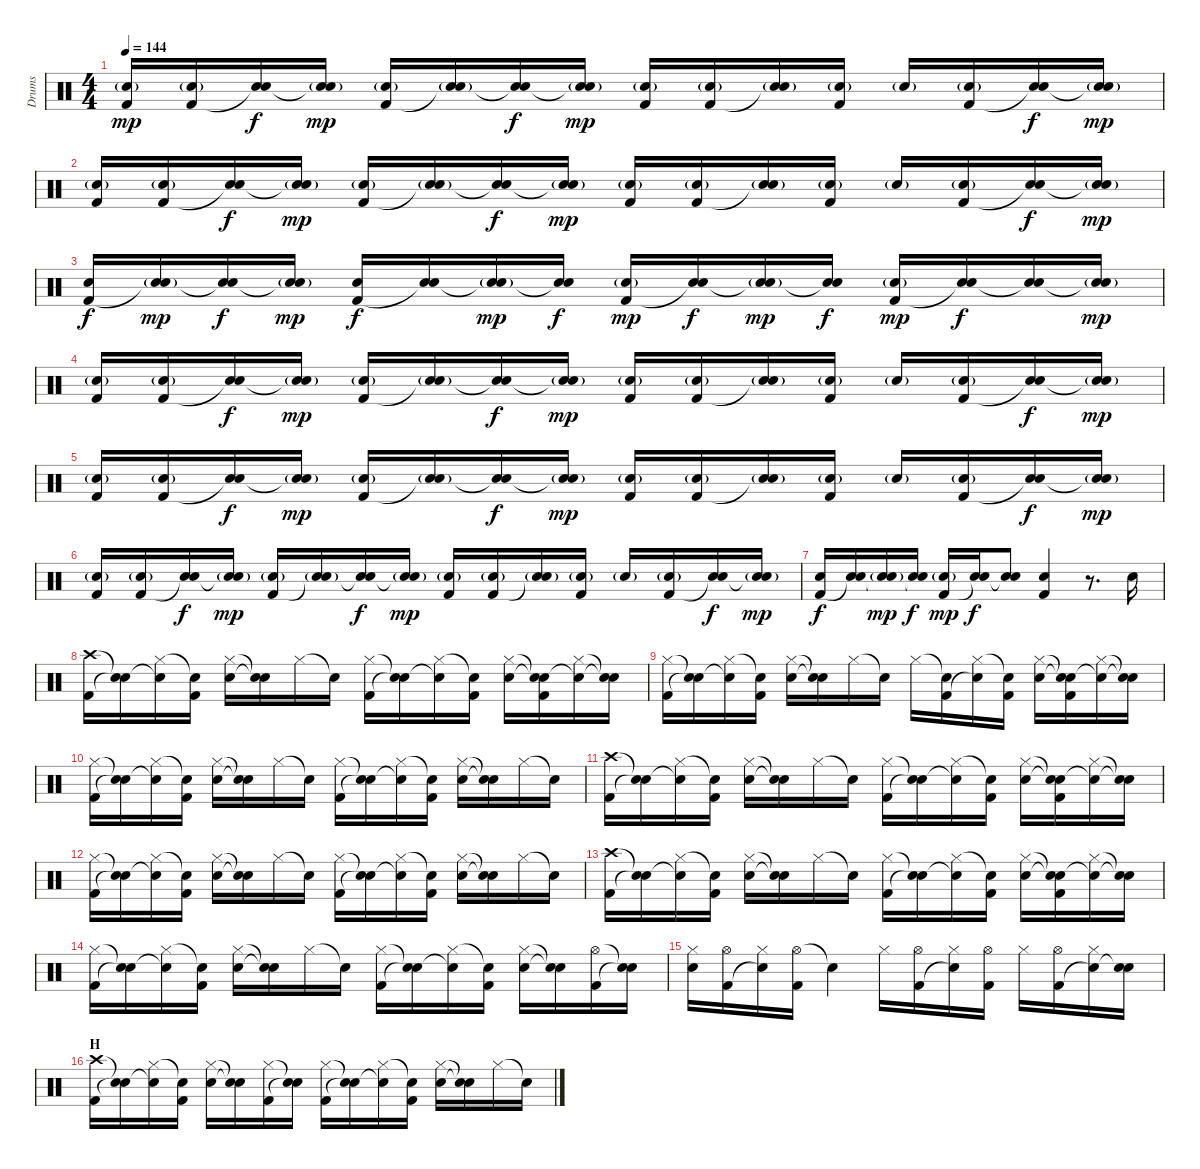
\track ("Drums" "Drums") {instrument percussion}
\staff {score}
\articulation defaults
\ts (4 4)
\tempo 144
\clef neutral
\ks c
("Snare (hit) 2"{g} "Kick (hit) 2").16{dy mp} ("Snare (hit) 2"{g} "Kick (hit) 2").16 ("Snare (hit) 2" "Snare (hit)"{t}).16{dy f} ("Snare (hit) 2"{g} "Snare (hit)"{t}).16{dy mp} ("Snare (hit) 2"{g} "Kick (hit) 2").16 ("Snare (hit) 2"{g} "Snare (hit)"{t}).16 ("Snare (hit) 2" "Snare (hit)"{t}).16{dy f} ("Snare (hit) 2"{g} "Snare (hit)"{t}).16{dy mp} ("Snare (hit) 2"{g} "Kick (hit) 2").16 ("Snare (hit) 2"{g} "Kick (hit) 2").16 ("Snare (hit) 2"{g} "Snare (hit)"{t}).16 ("Snare (hit) 2"{g} "Kick (hit) 2").16 "Snare (hit) 2"{g}.16 ("Snare (hit) 2"{g} "Kick (hit) 2").16 ("Snare (hit) 2" "Snare (hit)"{t}).16{dy f} ("Snare (hit) 2"{g} "Snare (hit)"{t}).16{dy mp} |
("Snare (hit) 2"{g} "Kick (hit) 2").16 ("Snare (hit) 2"{g} "Kick (hit) 2").16 ("Snare (hit) 2" "Snare (hit)"{t}).16{dy f} ("Snare (hit) 2"{g} "Snare (hit)"{t}).16{dy mp} ("Snare (hit) 2"{g} "Kick (hit) 2").16 ("Snare (hit) 2"{g} "Snare (hit)"{t}).16 ("Snare (hit) 2" "Snare (hit)"{t}).16{dy f} ("Snare (hit) 2"{g} "Snare (hit)"{t}).16{dy mp} ("Snare (hit) 2"{g} "Kick (hit) 2").16 ("Snare (hit) 2"{g} "Kick (hit) 2").16 ("Snare (hit) 2"{g} "Snare (hit)"{t}).16 ("Snare (hit) 2"{g} "Kick (hit) 2").16 "Snare (hit) 2"{g}.16 ("Snare (hit) 2"{g} "Kick (hit) 2").16 ("Snare (hit) 2" "Snare (hit)"{t}).16{dy f} ("Snare (hit) 2"{g} "Snare (hit)"{t}).16{dy mp} |
("Snare (hit) 2" "Kick (hit) 2").16{dy f} ("Snare (hit) 2"{g} "Snare (hit)"{t}).16{dy mp} ("Snare (hit) 2" "Snare (hit)"{t}).16{dy f} ("Snare (hit) 2"{g} "Snare (hit)"{t}).16{dy mp} ("Snare (hit) 2" "Kick (hit) 2").16{dy f} ("Snare (hit) 2" "Snare (hit)"{t}).16 ("Snare (hit) 2"{g} "Snare (hit)"{t}).16{dy mp} ("Snare (hit) 2" "Snare (hit)"{t}).16{dy f} ("Snare (hit) 2"{g} "Kick (hit) 2").16{dy mp} ("Snare (hit) 2" "Snare (hit)"{t}).16{dy f} ("Snare (hit) 2"{g} "Snare (hit)"{t}).16{dy mp} ("Snare (hit) 2" "Snare (hit)"{t}).16{dy f} ("Snare (hit) 2"{g} "Kick (hit) 2").16{dy mp} ("Snare (hit) 2" "Snare (hit)"{t}).16{dy f} ("Snare (hit) 2" "Snare (hit)"{t}).16 ("Snare (hit) 2"{g} "Snare (hit)"{t}).16{dy mp} |
("Snare (hit) 2"{g} "Kick (hit) 2").16 ("Snare (hit) 2"{g} "Kick (hit) 2").16 ("Snare (hit) 2" "Snare (hit)"{t}).16{dy f} ("Snare (hit) 2"{g} "Snare (hit)"{t}).16{dy mp} ("Snare (hit) 2"{g} "Kick (hit) 2").16 ("Snare (hit) 2"{g} "Snare (hit)"{t}).16 ("Snare (hit) 2" "Snare (hit)"{t}).16{dy f} ("Snare (hit) 2"{g} "Snare (hit)"{t}).16{dy mp} ("Snare (hit) 2"{g} "Kick (hit) 2").16 ("Snare (hit) 2"{g} "Kick (hit) 2").16 ("Snare (hit) 2"{g} "Snare (hit)"{t}).16 ("Snare (hit) 2"{g} "Kick (hit) 2").16 "Snare (hit) 2"{g}.16 ("Snare (hit) 2"{g} "Kick (hit) 2").16 ("Snare (hit) 2" "Snare (hit)"{t}).16{dy f} ("Snare (hit) 2"{g} "Snare (hit)"{t}).16{dy mp} |
("Snare (hit) 2"{g} "Kick (hit) 2").16 ("Snare (hit) 2"{g} "Kick (hit) 2").16 ("Snare (hit) 2" "Snare (hit)"{t}).16{dy f} ("Snare (hit) 2"{g} "Snare (hit)"{t}).16{dy mp} ("Snare (hit) 2"{g} "Kick (hit) 2").16 ("Snare (hit) 2"{g} "Snare (hit)"{t}).16 ("Snare (hit) 2" "Snare (hit)"{t}).16{dy f} ("Snare (hit) 2"{g} "Snare (hit)"{t}).16{dy mp} ("Snare (hit) 2"{g} "Kick (hit) 2").16 ("Snare (hit) 2"{g} "Kick (hit) 2").16 ("Snare (hit) 2"{g} "Snare (hit)"{t}).16 ("Snare (hit) 2"{g} "Kick (hit) 2").16 "Snare (hit) 2"{g}.16 ("Snare (hit) 2"{g} "Kick (hit) 2").16 ("Snare (hit) 2" "Snare (hit)"{t}).16{dy f} ("Snare (hit) 2"{g} "Snare (hit)"{t}).16{dy mp} |
("Snare (hit) 2"{g} "Kick (hit) 2").16 ("Snare (hit) 2"{g} "Kick (hit) 2").16 ("Snare (hit) 2" "Snare (hit)"{t}).16{dy f} ("Snare (hit) 2"{g} "Snare (hit)"{t}).16{dy mp} ("Snare (hit) 2"{g} "Kick (hit) 2").16 ("Snare (hit) 2"{g} "Snare (hit)"{t}).16 ("Snare (hit) 2" "Snare (hit)"{t}).16{dy f} ("Snare (hit) 2"{g} "Snare (hit)"{t}).16{dy mp} ("Snare (hit) 2"{g} "Kick (hit) 2").16 ("Snare (hit) 2"{g} "Kick (hit) 2").16 ("Snare (hit) 2"{g} "Snare (hit)"{t}).16 ("Snare (hit) 2"{g} "Kick (hit) 2").16 "Snare (hit) 2"{g}.16 ("Snare (hit) 2"{g} "Kick (hit) 2").16 ("Snare (hit) 2" "Snare (hit)"{t}).16{dy f} ("Snare (hit) 2"{g} "Snare (hit)"{t}).16{dy mp} |
("Snare (hit) 2" "Kick (hit) 2").16{dy f} ("Snare (hit) 2" "Snare (hit)"{t}).16 ("Snare (hit) 2"{g} "Snare (hit)"{t}).16{dy mp} ("Snare (hit) 2" "Snare (hit)"{t}).16{dy f} ("Snare (hit) 2"{g} "Kick (hit) 2").16{dy mp} ("Snare (hit) 2" "Snare (hit)"{t}).16{dy f} ("Snare (hit) 2" "Snare (hit)"{t}).8 ("Snare (hit) 2" "Kick (hit) 2").4 r.8{d} "Snare (hit) 2".16 |
("Crash high (hit)" "Kick (hit) 2").16 ("Snare (hit)"{t} "Snare (hit)"{t}).16 ("Hi-Hat (closed)" "Snare (hit)"{t}).16 ("Snare (hit)"{t} "Kick (hit) 2").16 ("Hi-Hat (closed)" "Snare (hit) 2").16 ("Snare (hit)"{t} "Snare (hit)"{t}).16 "Hi-Hat (closed)".16 "Snare (hit)"{t}.16 ("Hi-Hat (closed)" "Kick (hit) 2").16 ("Snare (hit)"{t} "Snare (hit)"{t}).16 ("Hi-Hat (closed)" "Snare (hit)"{t}).16 ("Snare (hit)"{t} "Kick (hit) 2").16 ("Hi-Hat (closed)" "Snare (hit) 2").16 ("Snare (hit)"{t} "Snare (hit)"{t} "Kick (hit) 2").16 ("Hi-Hat (closed)" "Snare (hit)"{t}).16 ("Snare (hit)"{t} "Snare (hit)"{t}).16 |
("Hi-Hat (closed)" "Kick (hit) 2").16 ("Snare (hit)"{t} "Snare (hit)"{t}).16 ("Hi-Hat (closed)" "Snare (hit)"{t}).16 ("Snare (hit)"{t} "Kick (hit) 2").16 ("Hi-Hat (closed)" "Snare (hit) 2").16 ("Snare (hit)"{t} "Snare (hit)"{t}).16 "Hi-Hat (closed)".16 "Snare (hit)"{t}.16 "Hi-Hat (closed)".16 ("Snare (hit)"{t} "Kick (hit) 2").16 ("Hi-Hat (closed)" "Snare (hit)"{t}).16 ("Snare (hit)"{t} "Kick (hit) 2").16 ("Hi-Hat (closed)" "Snare (hit) 2").16 ("Snare (hit)"{t} "Snare (hit)"{t} "Kick (hit) 2").16 ("Hi-Hat (closed)" "Snare (hit)"{t}).16 ("Snare (hit)"{t} "Snare (hit)"{t}).16 |
("Hi-Hat (closed)" "Kick (hit) 2").16 ("Snare (hit)"{t} "Snare (hit)"{t}).16 ("Hi-Hat (closed)" "Snare (hit)"{t}).16 ("Snare (hit)"{t} "Kick (hit) 2").16 ("Hi-Hat (closed)" "Snare (hit) 2").16 ("Snare (hit)"{t} "Snare (hit)"{t}).16 "Hi-Hat (closed)".16 "Snare (hit)"{t}.16 ("Hi-Hat (closed)" "Kick (hit) 2").16 ("Snare (hit)"{t} "Snare (hit)"{t}).16 ("Hi-Hat (closed)" "Snare (hit)"{t}).16 ("Snare (hit)"{t} "Kick (hit) 2").16 ("Hi-Hat (closed)" "Snare (hit) 2").16 ("Snare (hit)"{t} "Snare (hit)"{t}).16 "Hi-Hat (closed)".16 "Snare (hit)"{t}.16 |
("Crash high (hit)" "Kick (hit) 2").16 ("Snare (hit)"{t} "Snare (hit)"{t}).16 ("Hi-Hat (closed)" "Snare (hit)"{t}).16 ("Snare (hit)"{t} "Kick (hit) 2").16 ("Hi-Hat (closed)" "Snare (hit) 2").16 ("Snare (hit)"{t} "Snare (hit)"{t}).16 "Hi-Hat (closed)".16 "Snare (hit)"{t}.16 ("Hi-Hat (closed)" "Kick (hit) 2").16 ("Snare (hit)"{t} "Snare (hit)"{t}).16 ("Hi-Hat (closed)" "Snare (hit)"{t}).16 ("Snare (hit)"{t} "Kick (hit) 2").16 ("Hi-Hat (closed)" "Snare (hit) 2").16 ("Snare (hit)"{t} "Snare (hit)"{t} "Kick (hit) 2").16 ("Hi-Hat (closed)" "Snare (hit)"{t}).16 ("Snare (hit)"{t} "Snare (hit)"{t}).16 |
("Hi-Hat (closed)" "Kick (hit) 2").16 ("Snare (hit)"{t} "Snare (hit)"{t}).16 ("Hi-Hat (closed)" "Snare (hit)"{t}).16 ("Snare (hit)"{t} "Kick (hit) 2").16 ("Hi-Hat (closed)" "Snare (hit) 2").16 ("Snare (hit)"{t} "Snare (hit)"{t}).16 "Hi-Hat (closed)".16 "Snare (hit)"{t}.16 ("Hi-Hat (closed)" "Kick (hit) 2").16 ("Snare (hit)"{t} "Snare (hit)"{t}).16 ("Hi-Hat (closed)" "Snare (hit)"{t}).16 ("Snare (hit)"{t} "Kick (hit) 2").16 ("Hi-Hat (closed)" "Snare (hit) 2").16 ("Snare (hit)"{t} "Snare (hit)"{t}).16 "Hi-Hat (closed)".16 "Snare (hit)"{t}.16 |
("Crash high (hit)" "Kick (hit) 2").16 ("Snare (hit)"{t} "Snare (hit)"{t}).16 ("Hi-Hat (closed)" "Snare (hit)"{t}).16 ("Snare (hit)"{t} "Kick (hit) 2").16 ("Hi-Hat (closed)" "Snare (hit) 2").16 ("Snare (hit)"{t} "Snare (hit)"{t}).16 "Hi-Hat (closed)".16 "Snare (hit)"{t}.16 ("Hi-Hat (closed)" "Kick (hit) 2").16 ("Snare (hit)"{t} "Snare (hit)"{t}).16 ("Hi-Hat (closed)" "Snare (hit)"{t}).16 ("Snare (hit)"{t} "Kick (hit) 2").16 ("Hi-Hat (closed)" "Snare (hit) 2").16 ("Snare (hit)"{t} "Snare (hit)"{t} "Kick (hit) 2").16 ("Hi-Hat (closed)" "Snare (hit)"{t}).16 ("Snare (hit)"{t} "Snare (hit)"{t}).16 |
("Hi-Hat (closed)" "Kick (hit) 2").16 ("Snare (hit)"{t} "Snare (hit)"{t}).16 ("Hi-Hat (closed)" "Snare (hit)"{t}).16 ("Snare (hit)"{t} "Kick (hit) 2").16 ("Hi-Hat (closed)" "Snare (hit) 2").16 ("Snare (hit)"{t} "Snare (hit)"{t}).16 "Hi-Hat (closed)".16 "Snare (hit)"{t}.16 ("Hi-Hat (closed)" "Kick (hit) 2").16 ("Snare (hit)"{t} "Snare (hit)"{t}).16 ("Hi-Hat (closed)" "Snare (hit)"{t}).16 ("Snare (hit)"{t} "Kick (hit) 2").16 ("Hi-Hat (closed)" "Snare (hit) 2").16 ("Snare (hit)"{t} "Snare (hit)"{t}).16 ("Hi-Hat (open)" "Kick (hit) 2").16 ("Snare (hit)"{t} "Snare (hit)"{t}).16 |
("Hi-Hat (closed)" "Snare (hit) 2").16 ("Hi-Hat (open)" "Kick (hit) 2").16 ("Hi-Hat (closed)" "Snare (hit)"{t}).16 ("Hi-Hat (open)" "Kick (hit) 2").16 "Snare (hit)"{t}.4 "Hi-Hat (closed)".16 ("Hi-Hat (open)" "Kick (hit) 2").16 ("Hi-Hat (closed)" "Snare (hit)"{t}).16 ("Hi-Hat (open)" "Kick (hit) 2").16 "Hi-Hat (closed)".16 ("Hi-Hat (open)" "Kick (hit) 2").16 ("Hi-Hat (closed)" "Snare (hit)"{t}).16 ("Snare (hit) 2" "Snare (hit)"{t}).16 |
\section ("" "H")
("Crash high (hit)" "Kick (hit) 2").16 ("Snare (hit)"{t} "Snare (hit)"{t}).16 ("Hi-Hat (closed)" "Snare (hit)"{t}).16 ("Snare (hit)"{t} "Kick (hit) 2").16 ("Hi-Hat (closed)" "Snare (hit) 2").16 ("Snare (hit)"{t} "Snare (hit)"{t}).16 ("Hi-Hat (closed)" "Kick (hit) 2").16 ("Snare (hit)"{t} "Snare (hit)"{t}).16 ("Hi-Hat (closed)" "Kick (hit) 2").16 ("Snare (hit)"{t} "Snare (hit)"{t}).16 ("Hi-Hat (closed)" "Snare (hit)"{t}).16 ("Snare (hit)"{t} "Kick (hit) 2").16 ("Hi-Hat (closed)" "Snare (hit) 2").16 ("Snare (hit)"{t} "Snare (hit)"{t}).16 "Hi-Hat (closed)".16 "Snare (hit)"{t}.16
